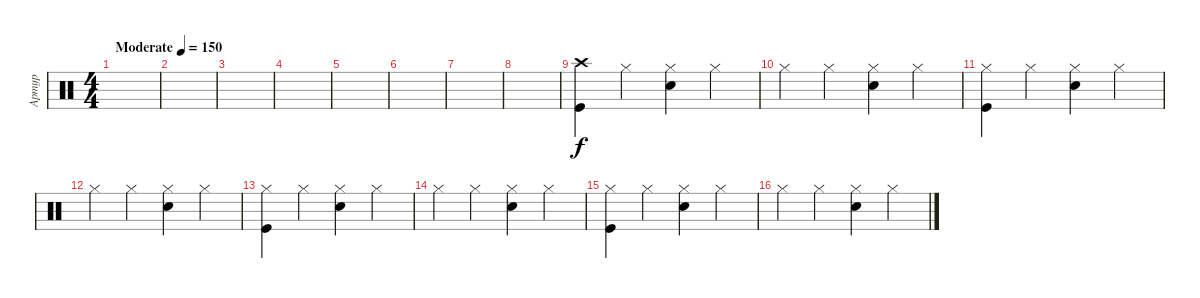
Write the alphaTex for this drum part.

\track ("Артур" "Артур") {instrument percussion}
\staff {score}
\articulation defaults
\ts (4 4)
\tempo (150 "Moderate")
\clef neutral
\ks c
|
|
|
|
|
|
|
|
("Crash high (hit)" "Kick (hit)").4 "Hi-Hat (closed)".4 ("Hi-Hat (closed)" "Electric Snare (hit)").4 "Hi-Hat (closed)".4 |
"Hi-Hat (closed)".4 "Hi-Hat (closed)".4 ("Hi-Hat (closed)" "Electric Snare (hit)").4 "Hi-Hat (closed)".4 |
("Hi-Hat (closed)" "Kick (hit)").4 "Hi-Hat (closed)".4 ("Hi-Hat (closed)" "Electric Snare (hit)").4 "Hi-Hat (closed)".4 |
"Hi-Hat (closed)".4 "Hi-Hat (closed)".4 ("Hi-Hat (closed)" "Electric Snare (hit)").4 "Hi-Hat (closed)".4 |
("Hi-Hat (closed)" "Kick (hit)").4 "Hi-Hat (closed)".4 ("Hi-Hat (closed)" "Electric Snare (hit)").4 "Hi-Hat (closed)".4 |
"Hi-Hat (closed)".4 "Hi-Hat (closed)".4 ("Hi-Hat (closed)" "Electric Snare (hit)").4 "Hi-Hat (closed)".4 |
("Hi-Hat (closed)" "Kick (hit)").4 "Hi-Hat (closed)".4 ("Hi-Hat (closed)" "Electric Snare (hit)").4 "Hi-Hat (closed)".4 |
"Hi-Hat (closed)".4 "Hi-Hat (closed)".4 ("Hi-Hat (closed)" "Electric Snare (hit)").4 "Hi-Hat (closed)".4
